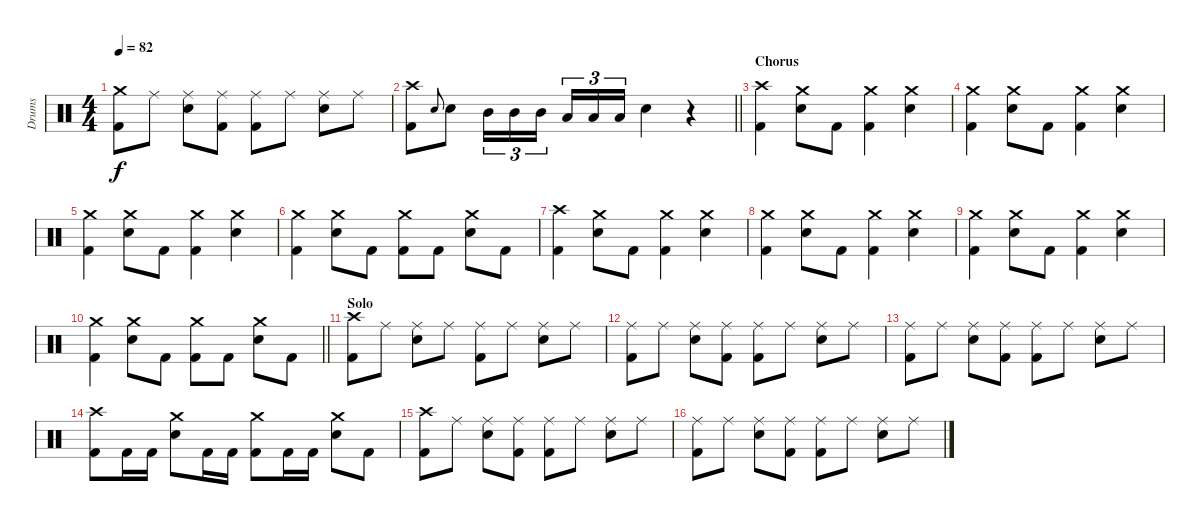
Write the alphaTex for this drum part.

\track ("Drums" "Drums") {instrument percussion}
\staff {score}
\articulation defaults
\ts (4 4)
\tempo 82
\clef neutral
\ks c
("Crash medium (hit)" "Kick (hit) 2").8{dy f} "Ride (middle)".8 ("Ride (middle)" "Snare (hit) 2").8 ("Ride (middle)" "Kick (hit) 2").8 ("Ride (middle)" "Kick (hit) 2").8 "Ride (middle)".8 ("Ride (middle)" "Snare (hit) 2").8 "Ride (middle)".8 |
\barLineRight lightlight
("Crash high (hit)" "Kick (hit) 2").8 "Snare (hit) 2".8{gr onbeat} "Snare (hit) 2".8 "Mid Tom (hit)".16{tu (3 2)} "Mid Tom (hit)".16{tu (3 2)} "Mid Tom (hit)".16{tu (3 2) beam splitsecondary} "Low Tom (hit)".16{tu (3 2)} "Low Tom (hit)".16{tu (3 2)} "Low Tom (hit)".16{tu (3 2)} "Snare (hit) 2".4 r.4 |
\section ("" "Chorus")
("Crash high (hit)" "Kick (hit) 2").4 ("Crash medium (hit)" "Snare (hit) 2").8 "Kick (hit) 2".8 ("Crash medium (hit)" "Kick (hit) 2").4 ("Crash medium (hit)" "Snare (hit) 2").4 |
("Crash medium (hit)" "Kick (hit) 2").4 ("Crash medium (hit)" "Snare (hit) 2").8 "Kick (hit) 2".8 ("Crash medium (hit)" "Kick (hit) 2").4 ("Crash medium (hit)" "Snare (hit) 2").4 |
("Crash medium (hit)" "Kick (hit) 2").4 ("Crash medium (hit)" "Snare (hit) 2").8 "Kick (hit) 2".8 ("Crash medium (hit)" "Kick (hit) 2").4 ("Crash medium (hit)" "Snare (hit) 2").4 |
("Crash medium (hit)" "Kick (hit) 2").4 ("Crash medium (hit)" "Snare (hit) 2").8 "Kick (hit) 2".8 ("Crash medium (hit)" "Kick (hit) 2").8 "Kick (hit) 2".8 ("Crash medium (hit)" "Snare (hit) 2").8 "Kick (hit) 2".8 |
("Crash high (hit)" "Kick (hit) 2").4 ("Crash medium (hit)" "Snare (hit) 2").8 "Kick (hit) 2".8 ("Crash medium (hit)" "Kick (hit) 2").4 ("Crash medium (hit)" "Snare (hit) 2").4 |
("Crash medium (hit)" "Kick (hit) 2").4 ("Crash medium (hit)" "Snare (hit) 2").8 "Kick (hit) 2".8 ("Crash medium (hit)" "Kick (hit) 2").4 ("Crash medium (hit)" "Snare (hit) 2").4 |
("Crash medium (hit)" "Kick (hit) 2").4 ("Crash medium (hit)" "Snare (hit) 2").8 "Kick (hit) 2".8 ("Crash medium (hit)" "Kick (hit) 2").4 ("Crash medium (hit)" "Snare (hit) 2").4 |
\barLineRight lightlight
("Crash medium (hit)" "Kick (hit) 2").4 ("Crash medium (hit)" "Snare (hit) 2").8 "Kick (hit) 2".8 ("Crash medium (hit)" "Kick (hit) 2").8 "Kick (hit) 2".8 ("Crash medium (hit)" "Snare (hit) 2").8 "Kick (hit) 2".8 |
\section ("" "Solo")
("Crash high (hit)" "Kick (hit) 2").8 "Ride (middle)".8 ("Ride (middle)" "Snare (hit) 2").8 "Ride (middle)".8 ("Ride (middle)" "Kick (hit) 2").8 "Ride (middle)".8 ("Ride (middle)" "Snare (hit) 2").8 "Ride (middle)".8 |
("Ride (middle)" "Kick (hit) 2").8 "Ride (middle)".8 ("Ride (middle)" "Snare (hit) 2").8 ("Ride (middle)" "Kick (hit) 2").8 ("Ride (middle)" "Kick (hit) 2").8 "Ride (middle)".8 ("Ride (middle)" "Snare (hit) 2").8 "Ride (middle)".8 |
("Ride (middle)" "Kick (hit) 2").8 "Ride (middle)".8 ("Ride (middle)" "Snare (hit) 2").8 ("Ride (middle)" "Kick (hit) 2").8 ("Ride (middle)" "Kick (hit) 2").8 "Ride (middle)".8 ("Ride (middle)" "Snare (hit) 2").8 "Ride (middle)".8 |
("Crash high (hit)" "Kick (hit) 2").8 "Kick (hit) 2".16 "Kick (hit) 2".16 ("Crash medium (hit)" "Snare (hit) 2").8 "Kick (hit) 2".16 "Kick (hit) 2".16 ("Crash medium (hit)" "Kick (hit) 2").8 "Kick (hit) 2".16 "Kick (hit) 2".16 ("Crash medium (hit)" "Snare (hit) 2").8 "Kick (hit) 2".8 |
("Crash high (hit)" "Kick (hit) 2").8 "Ride (middle)".8 ("Ride (middle)" "Snare (hit) 2").8 ("Ride (middle)" "Kick (hit) 2").8 ("Ride (middle)" "Kick (hit) 2").8 "Ride (middle)".8 ("Ride (middle)" "Snare (hit) 2").8 "Ride (middle)".8 |
("Ride (middle)" "Kick (hit) 2").8 "Ride (middle)".8 ("Ride (middle)" "Snare (hit) 2").8 ("Ride (middle)" "Kick (hit) 2").8 ("Ride (middle)" "Kick (hit) 2").8 "Ride (middle)".8 ("Ride (middle)" "Snare (hit) 2").8 "Ride (middle)".8
